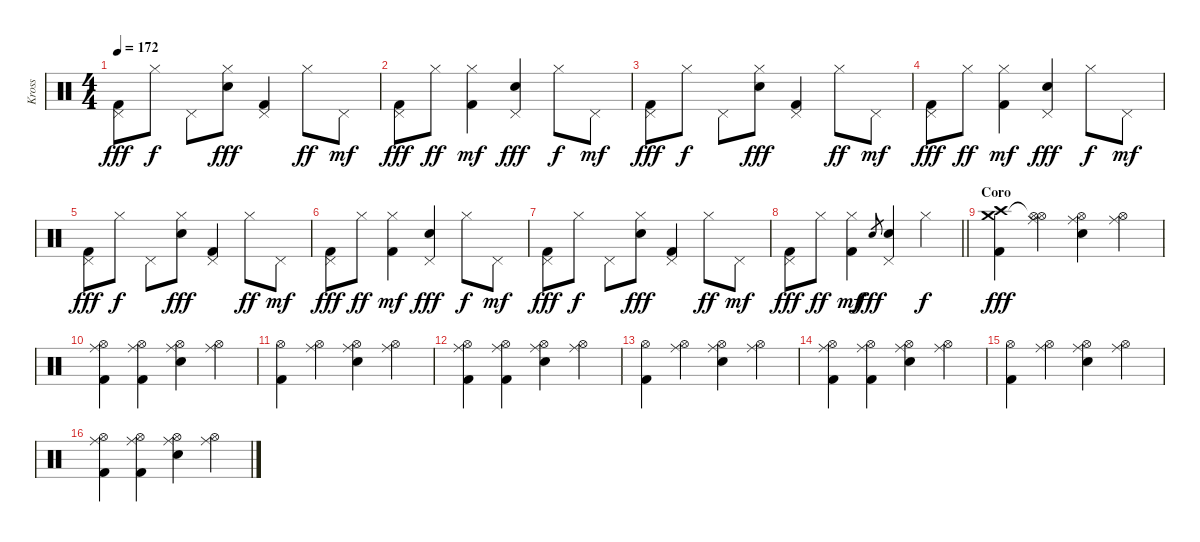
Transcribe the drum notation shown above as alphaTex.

\track ("Kross" "Kross") {instrument percussion}
\staff {score}
\articulation defaults
\ts (4 4)
\tempo 172
\clef neutral
\ks c
("Pedal Hi-Hat (hit)" "Kick (hit) 2").8{dy fff} "Hi-Hat (closed)".8{dy f} "Pedal Hi-Hat (hit)".8 ("Hi-Hat (closed)" "Snare (hit) 2").8{dy fff} ("Pedal Hi-Hat (hit)" "Kick (hit) 2").4 "Hi-Hat (closed)".8{dy ff} "Pedal Hi-Hat (hit)".8{dy mf} |
("Pedal Hi-Hat (hit)" "Kick (hit) 2").8{dy fff} "Hi-Hat (closed)".8{dy ff} ("Hi-Hat (closed)" "Kick (hit) 2").4{dy mf} ("Pedal Hi-Hat (hit)" "Snare (hit) 2").4{dy fff} "Hi-Hat (closed)".8{dy f} "Pedal Hi-Hat (hit)".8{dy mf} |
("Pedal Hi-Hat (hit)" "Kick (hit) 2").8{dy fff} "Hi-Hat (closed)".8{dy f} "Pedal Hi-Hat (hit)".8 ("Hi-Hat (closed)" "Snare (hit) 2").8{dy fff} ("Pedal Hi-Hat (hit)" "Kick (hit) 2").4 "Hi-Hat (closed)".8{dy ff} "Pedal Hi-Hat (hit)".8{dy mf} |
("Pedal Hi-Hat (hit)" "Kick (hit) 2").8{dy fff} "Hi-Hat (closed)".8{dy ff} ("Hi-Hat (closed)" "Kick (hit) 2").4{dy mf} ("Pedal Hi-Hat (hit)" "Snare (hit) 2").4{dy fff} "Hi-Hat (closed)".8{dy f} "Pedal Hi-Hat (hit)".8{dy mf} |
("Pedal Hi-Hat (hit)" "Kick (hit) 2").8{dy fff} "Hi-Hat (closed)".8{dy f} "Pedal Hi-Hat (hit)".8 ("Hi-Hat (closed)" "Snare (hit) 2").8{dy fff} ("Pedal Hi-Hat (hit)" "Kick (hit) 2").4 "Hi-Hat (closed)".8{dy ff} "Pedal Hi-Hat (hit)".8{dy mf} |
("Pedal Hi-Hat (hit)" "Kick (hit) 2").8{dy fff} "Hi-Hat (closed)".8{dy ff} ("Hi-Hat (closed)" "Kick (hit) 2").4{dy mf} ("Pedal Hi-Hat (hit)" "Snare (hit) 2").4{dy fff} "Hi-Hat (closed)".8{dy f} "Pedal Hi-Hat (hit)".8{dy mf} |
("Pedal Hi-Hat (hit)" "Kick (hit) 2").8{dy fff} "Hi-Hat (closed)".8{dy f} "Pedal Hi-Hat (hit)".8 ("Hi-Hat (closed)" "Snare (hit) 2").8{dy fff} ("Pedal Hi-Hat (hit)" "Kick (hit) 2").4 "Hi-Hat (closed)".8{dy ff} "Pedal Hi-Hat (hit)".8{dy mf} |
\barLineRight lightlight
("Pedal Hi-Hat (hit)" "Kick (hit) 2").8{dy fff} "Hi-Hat (closed)".8{dy ff} ("Hi-Hat (closed)" "Kick (hit) 2").4{dy mf} "Electric Snare (hit)".8{gr dy fff} ("Pedal Hi-Hat (hit)" "Electric Snare (hit)").4 "Hi-Hat (closed)".4{dy f} |
\section ("" "Coro")
("Crash medium (hit)" "Crash high (hit)" "Kick (hit) 2").4{dy fff} ("Hi-Hat (open)"{t} "Hi-Hat (open)" "Ride (middle)").4 ("Hi-Hat (open)" "Ride (middle)" "Snare (hit) 2").4 ("Hi-Hat (open)" "Ride (middle)").4 |
("Hi-Hat (open)" "Ride (middle)" "Kick (hit) 2").4 ("Hi-Hat (open)" "Ride (middle)" "Kick (hit) 2").4 ("Hi-Hat (open)" "Ride (middle)" "Snare (hit) 2").4 ("Hi-Hat (open)" "Ride (middle)").4 |
("Hi-Hat (open)" "Kick (hit) 2").4 ("Hi-Hat (open)" "Ride (middle)").4 ("Hi-Hat (open)" "Ride (middle)" "Snare (hit) 2").4 ("Hi-Hat (open)" "Ride (middle)").4 |
("Hi-Hat (open)" "Ride (middle)" "Kick (hit) 2").4 ("Hi-Hat (open)" "Ride (middle)" "Kick (hit) 2").4 ("Hi-Hat (open)" "Ride (middle)" "Snare (hit) 2").4 ("Hi-Hat (open)" "Ride (middle)").4 |
("Hi-Hat (open)" "Kick (hit) 2").4 ("Hi-Hat (open)" "Ride (middle)").4 ("Hi-Hat (open)" "Ride (middle)" "Snare (hit) 2").4 ("Hi-Hat (open)" "Ride (middle)").4 |
("Hi-Hat (open)" "Ride (middle)" "Kick (hit) 2").4 ("Hi-Hat (open)" "Ride (middle)" "Kick (hit) 2").4 ("Hi-Hat (open)" "Ride (middle)" "Snare (hit) 2").4 ("Hi-Hat (open)" "Ride (middle)").4 |
("Hi-Hat (open)" "Kick (hit) 2").4 ("Hi-Hat (open)" "Ride (middle)").4 ("Hi-Hat (open)" "Ride (middle)" "Snare (hit) 2").4 ("Hi-Hat (open)" "Ride (middle)").4 |
("Hi-Hat (open)" "Ride (middle)" "Kick (hit) 2").4 ("Hi-Hat (open)" "Ride (middle)" "Kick (hit) 2").4 ("Hi-Hat (open)" "Ride (middle)" "Snare (hit) 2").4 ("Hi-Hat (open)" "Ride (middle)").4
